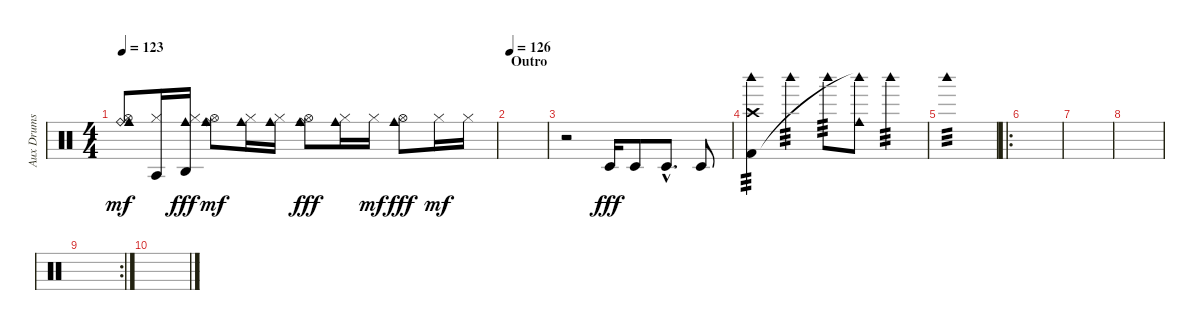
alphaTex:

\track ("Aux Drums" "Aux Drums") {instrument percussion}
\staff {score}
\articulation defaults
\ts (4 4)
\tempo 123
\clef neutral
\ks c
("Hi-Hat (open)" "Ride (bell)" "Cowbell medium (hit)").8{dy mf} ("Hi-Hat (closed)" "Agogo tow (hit)").16 ("Hi-Hat (closed)" "Agogo high (hit)" "Cowbell medium (hit)").16{dy fff} ("Hi-Hat (open)" "Ride (bell)" "Cowbell medium (hit)").8{dy mf} ("Hi-Hat (closed)" "Cowbell medium (hit)").16 ("Hi-Hat (closed)" "Cowbell medium (hit)").16 ("Hi-Hat (open)" "Ride (bell)" "Cowbell medium (hit)").8{dy fff} ("Hi-Hat (closed)" "Cowbell medium (hit)").16 "Hi-Hat (closed)".16{dy mf} ("Hi-Hat (open)" "Cowbell medium (hit)").8{dy fff} "Hi-Hat (closed)".16{dy mf} "Hi-Hat (closed)".16 |
\section ("" "Outro")
\tempo 126
|
r.2 "Timbale low (hit)".16{dy fff} "Timbale low (hit)".8 "Timbale low (hit)"{hac}.8{d} "Timbale low (hit)".8 |
("Crash high (hit)" "Kick (hit) 2" "Woodblock high (hit)").4{tp 3} "Woodblock high (hit)".4{tp 3} "Woodblock high (hit)".8{tp 3} ("Cowbell medium (hit)" "Woodblock high (hit)"{t}).8 "Woodblock high (hit)".4{tp 3} |
"Woodblock high (hit)".1{tp 3} |
\ro
\section ("" "")
|
|
|
\rc 2
|
\section ("" "")
